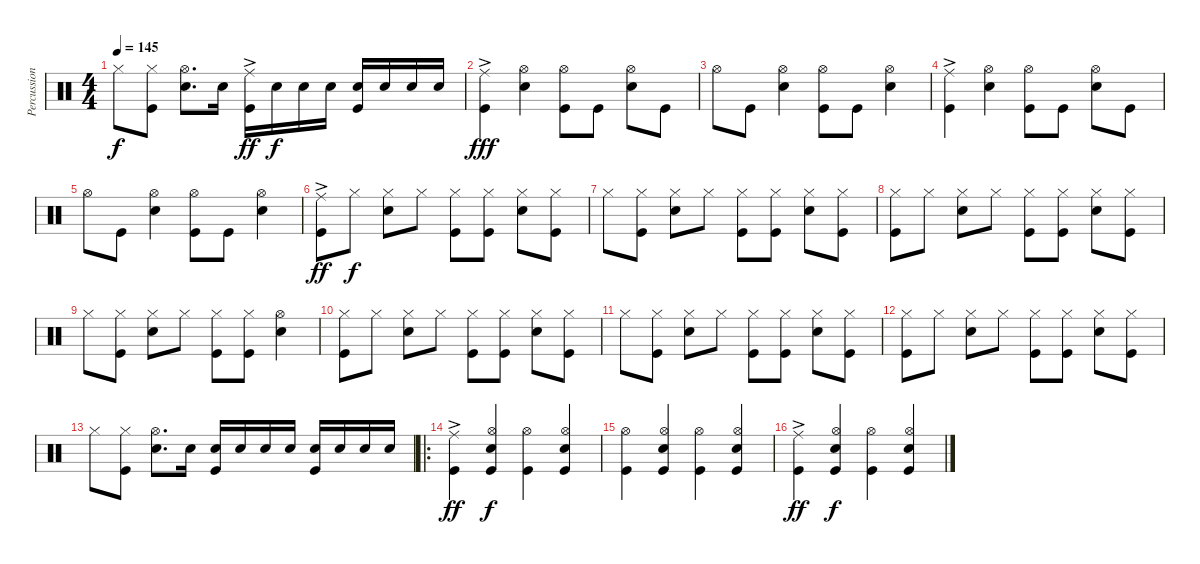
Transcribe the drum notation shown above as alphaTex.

\track ("Percussion" "Percussion") {instrument percussion}
\staff {score}
\articulation defaults
\ts (4 4)
\tempo 145
\clef neutral
\ks c "Hi-Hat (closed)".8{dy f}
("Hi-Hat (closed)" "Kick (hit)").8 ("Hi-Hat (open)" "Snare (hit) 2").8{d} "Snare (hit) 2".16 ("Ride (middle)"{ac} "Kick (hit)").16{dy ff} "Snare (hit) 2".16{dy f} "Snare (hit) 2".16 "Snare (hit) 2".16 ("Snare (hit) 2" "Kick (hit)").16 "Snare (hit) 2".16 "Snare (hit) 2".16 "Snare (hit) 2".16 |
("Ride (middle)"{ac} "Kick (hit)").4{dy fff} ("Hi-Hat (open)" "Snare (hit) 2").4 ("Hi-Hat (open)" "Kick (hit)").8 "Kick (hit)".8 ("Hi-Hat (open)" "Snare (hit) 2").8 "Kick (hit)".8 |
"Hi-Hat (open)".8 "Kick (hit)".8 ("Hi-Hat (open)" "Snare (hit) 2").4 ("Hi-Hat (open)" "Kick (hit)").8 "Kick (hit)".8 ("Hi-Hat (open)" "Snare (hit) 2").4 |
("Ride (middle)"{ac} "Kick (hit)").4 ("Hi-Hat (open)" "Snare (hit) 2").4 ("Hi-Hat (open)" "Kick (hit)").8 "Kick (hit)".8 ("Hi-Hat (open)" "Snare (hit) 2").8 "Kick (hit)".8 |
"Hi-Hat (open)".8 "Kick (hit)".8 ("Hi-Hat (open)" "Snare (hit) 2").4 ("Hi-Hat (open)" "Kick (hit)").8 "Kick (hit)".8 ("Hi-Hat (open)" "Snare (hit) 2").4 |
("Ride (middle)"{ac} "Kick (hit)").8{dy ff} "Hi-Hat (closed)".8{dy f} ("Hi-Hat (closed)" "Snare (hit) 2").8 "Hi-Hat (closed)".8 ("Hi-Hat (closed)" "Kick (hit)").8 ("Hi-Hat (closed)" "Kick (hit)").8 ("Hi-Hat (closed)" "Snare (hit) 2").8 ("Hi-Hat (closed)" "Kick (hit)").8 |
"Hi-Hat (closed)".8 ("Hi-Hat (closed)" "Kick (hit)").8 ("Hi-Hat (closed)" "Snare (hit) 2").8 "Hi-Hat (closed)".8 ("Hi-Hat (closed)" "Kick (hit)").8 ("Hi-Hat (closed)" "Kick (hit)").8 ("Hi-Hat (closed)" "Snare (hit) 2").8 ("Hi-Hat (closed)" "Kick (hit)").8 |
("Hi-Hat (closed)" "Kick (hit)").8 "Hi-Hat (closed)".8 ("Hi-Hat (closed)" "Snare (hit) 2").8 "Hi-Hat (closed)".8 ("Hi-Hat (closed)" "Kick (hit)").8 ("Hi-Hat (closed)" "Kick (hit)").8 ("Hi-Hat (closed)" "Snare (hit) 2").8 ("Hi-Hat (closed)" "Kick (hit)").8 |
"Hi-Hat (closed)".8 ("Hi-Hat (closed)" "Kick (hit)").8 ("Hi-Hat (closed)" "Snare (hit) 2").8 "Hi-Hat (closed)".8 ("Hi-Hat (closed)" "Kick (hit)").8 ("Hi-Hat (closed)" "Kick (hit)").8 ("Hi-Hat (open)" "Snare (hit) 2").4 |
("Hi-Hat (closed)" "Kick (hit)").8 "Hi-Hat (closed)".8 ("Hi-Hat (closed)" "Snare (hit) 2").8 "Hi-Hat (closed)".8 ("Hi-Hat (closed)" "Kick (hit)").8 ("Hi-Hat (closed)" "Kick (hit)").8 ("Hi-Hat (closed)" "Snare (hit) 2").8 ("Hi-Hat (closed)" "Kick (hit)").8 |
"Hi-Hat (closed)".8 ("Hi-Hat (closed)" "Kick (hit)").8 ("Hi-Hat (closed)" "Snare (hit) 2").8 "Hi-Hat (closed)".8 ("Hi-Hat (closed)" "Kick (hit)").8 ("Hi-Hat (closed)" "Kick (hit)").8 ("Hi-Hat (closed)" "Snare (hit) 2").8 ("Hi-Hat (closed)" "Kick (hit)").8 |
("Hi-Hat (closed)" "Kick (hit)").8 "Hi-Hat (closed)".8 ("Hi-Hat (closed)" "Snare (hit) 2").8 "Hi-Hat (closed)".8 ("Hi-Hat (closed)" "Kick (hit)").8 ("Hi-Hat (closed)" "Kick (hit)").8 ("Hi-Hat (closed)" "Snare (hit) 2").8 ("Hi-Hat (closed)" "Kick (hit)").8 |
"Hi-Hat (closed)".8 ("Hi-Hat (closed)" "Kick (hit)").8 ("Hi-Hat (open)" "Snare (hit) 2").8{d} "Snare (hit) 2".16 ("Snare (hit) 2" "Kick (hit)").16 "Snare (hit) 2".16 "Snare (hit) 2".16 "Snare (hit) 2".16 ("Snare (hit) 2" "Kick (hit)").16 "Snare (hit) 2".16 "Snare (hit) 2".16 "Snare (hit) 2".16 |
\ro
("Ride (middle)"{ac} "Kick (hit)").4{dy ff} ("Hi-Hat (open)" "Snare (hit) 2" "Kick (hit)").4{dy f} ("Hi-Hat (open)" "Kick (hit)").4 ("Hi-Hat (open)" "Snare (hit) 2" "Kick (hit)").4 |
("Hi-Hat (open)" "Kick (hit)").4 ("Hi-Hat (open)" "Snare (hit) 2" "Kick (hit)").4 ("Hi-Hat (open)" "Kick (hit)").4 ("Hi-Hat (open)" "Snare (hit) 2" "Kick (hit)").4 |
("Ride (middle)"{ac} "Kick (hit)").4{dy ff} ("Hi-Hat (open)" "Snare (hit) 2" "Kick (hit)").4{dy f} ("Hi-Hat (open)" "Kick (hit)").4 ("Hi-Hat (open)" "Snare (hit) 2" "Kick (hit)").4
